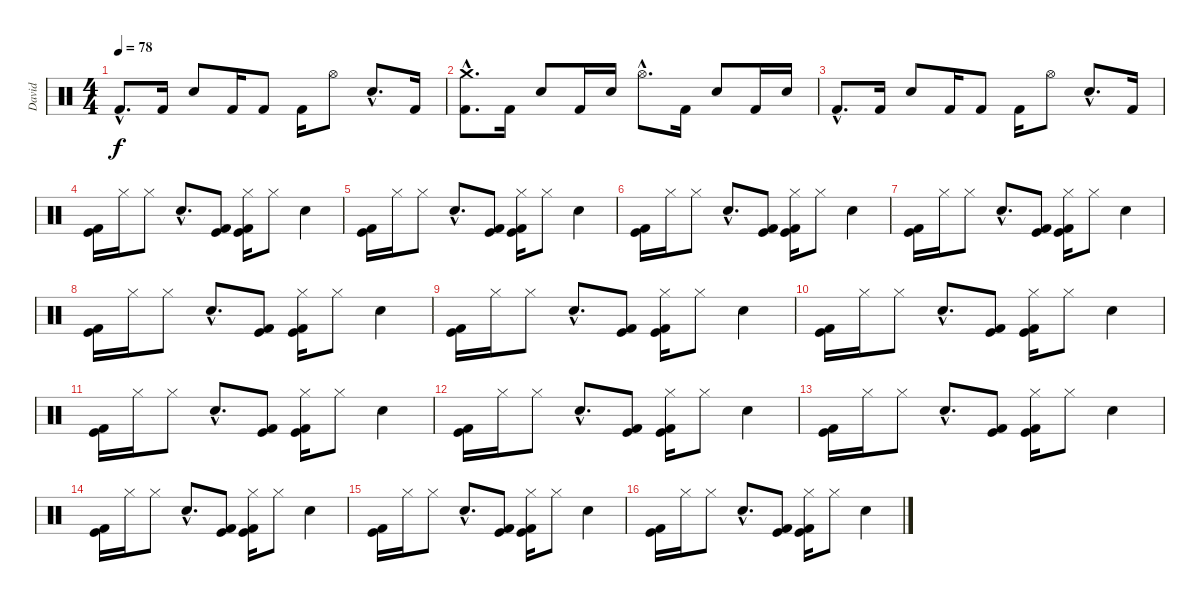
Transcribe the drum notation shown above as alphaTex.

\track ("David" "David") {instrument percussion}
\staff {score}
\articulation defaults
\ts (4 4)
\tempo 78
\clef neutral
\ks c "Kick (hit) 2"{hac}.8{d dy f} "Kick (hit) 2".16 "Snare (hit) 2".8 "Kick (hit) 2".16 "Kick (hit) 2".8 "Kick (hit) 2".16 "Hi-Hat (open)".8 "Snare (hit) 2"{hac}.8{d} "Kick (hit) 2".16
|
("Crash medium (hit)"{hac} "Kick (hit) 2"{hac}).8{d} "Kick (hit) 2".16 "Snare (hit) 2".8 "Kick (hit) 2".16 "Snare (hit) 2".16 "Hi-Hat (open)"{hac}.8{d} "Kick (hit) 2".16 "Snare (hit) 2".8 "Kick (hit) 2".16 "Snare (hit) 2".16 |
"Kick (hit) 2"{hac}.8{d} "Kick (hit) 2".16 "Snare (hit) 2".8 "Kick (hit) 2".16 "Kick (hit) 2".8 "Kick (hit) 2".16 "Hi-Hat (open)".8 "Snare (hit) 2"{hac}.8{d} "Kick (hit) 2".16 |
("Kick (hit) 2" "Kick (hit)").16 "Hi-Hat (closed)".16 "Hi-Hat (closed)".8 "Electric Snare (hit)"{hac}.8{d} ("Kick (hit) 2" "Kick (hit)").8 ("Hi-Hat (closed)" "Kick (hit) 2" "Kick (hit)").16 "Hi-Hat (closed)".8 "Electric Snare (hit)".4 |
("Kick (hit) 2" "Kick (hit)").16 "Hi-Hat (closed)".16 "Hi-Hat (closed)".8 "Electric Snare (hit)"{hac}.8{d} ("Kick (hit) 2" "Kick (hit)").8 ("Hi-Hat (closed)" "Kick (hit) 2" "Kick (hit)").16 "Hi-Hat (closed)".8 "Electric Snare (hit)".4 |
("Kick (hit) 2" "Kick (hit)").16 "Hi-Hat (closed)".16 "Hi-Hat (closed)".8 "Electric Snare (hit)"{hac}.8{d} ("Kick (hit) 2" "Kick (hit)").8 ("Hi-Hat (closed)" "Kick (hit) 2" "Kick (hit)").16 "Hi-Hat (closed)".8 "Electric Snare (hit)".4 |
("Kick (hit) 2" "Kick (hit)").16 "Hi-Hat (closed)".16 "Hi-Hat (closed)".8 "Electric Snare (hit)"{hac}.8{d} ("Kick (hit) 2" "Kick (hit)").8 ("Hi-Hat (closed)" "Kick (hit) 2" "Kick (hit)").16 "Hi-Hat (closed)".8 "Electric Snare (hit)".4 |
("Kick (hit) 2" "Kick (hit)").16 "Hi-Hat (closed)".16 "Hi-Hat (closed)".8 "Electric Snare (hit)"{hac}.8{d} ("Kick (hit) 2" "Kick (hit)").8 ("Hi-Hat (closed)" "Kick (hit) 2" "Kick (hit)").16 "Hi-Hat (closed)".8 "Electric Snare (hit)".4 |
("Kick (hit) 2" "Kick (hit)").16 "Hi-Hat (closed)".16 "Hi-Hat (closed)".8 "Electric Snare (hit)"{hac}.8{d} ("Kick (hit) 2" "Kick (hit)").8 ("Hi-Hat (closed)" "Kick (hit) 2" "Kick (hit)").16 "Hi-Hat (closed)".8 "Electric Snare (hit)".4 |
("Kick (hit) 2" "Kick (hit)").16 "Hi-Hat (closed)".16 "Hi-Hat (closed)".8 "Electric Snare (hit)"{hac}.8{d} ("Kick (hit) 2" "Kick (hit)").8 ("Hi-Hat (closed)" "Kick (hit) 2" "Kick (hit)").16 "Hi-Hat (closed)".8 "Electric Snare (hit)".4 |
("Kick (hit) 2" "Kick (hit)").16 "Hi-Hat (closed)".16 "Hi-Hat (closed)".8 "Electric Snare (hit)"{hac}.8{d} ("Kick (hit) 2" "Kick (hit)").8 ("Hi-Hat (closed)" "Kick (hit) 2" "Kick (hit)").16 "Hi-Hat (closed)".8 "Electric Snare (hit)".4 |
("Kick (hit) 2" "Kick (hit)").16 "Hi-Hat (closed)".16 "Hi-Hat (closed)".8 "Electric Snare (hit)"{hac}.8{d} ("Kick (hit) 2" "Kick (hit)").8 ("Hi-Hat (closed)" "Kick (hit) 2" "Kick (hit)").16 "Hi-Hat (closed)".8 "Electric Snare (hit)".4 |
("Kick (hit) 2" "Kick (hit)").16 "Hi-Hat (closed)".16 "Hi-Hat (closed)".8 "Electric Snare (hit)"{hac}.8{d} ("Kick (hit) 2" "Kick (hit)").8 ("Hi-Hat (closed)" "Kick (hit) 2" "Kick (hit)").16 "Hi-Hat (closed)".8 "Electric Snare (hit)".4 |
("Kick (hit) 2" "Kick (hit)").16 "Hi-Hat (closed)".16 "Hi-Hat (closed)".8 "Electric Snare (hit)"{hac}.8{d} ("Kick (hit) 2" "Kick (hit)").8 ("Hi-Hat (closed)" "Kick (hit) 2" "Kick (hit)").16 "Hi-Hat (closed)".8 "Electric Snare (hit)".4 |
("Kick (hit) 2" "Kick (hit)").16 "Hi-Hat (closed)".16 "Hi-Hat (closed)".8 "Electric Snare (hit)"{hac}.8{d} ("Kick (hit) 2" "Kick (hit)").8 ("Hi-Hat (closed)" "Kick (hit) 2" "Kick (hit)").16 "Hi-Hat (closed)".8 "Electric Snare (hit)".4 |
("Kick (hit) 2" "Kick (hit)").16 "Hi-Hat (closed)".16 "Hi-Hat (closed)".8 "Electric Snare (hit)"{hac}.8{d} ("Kick (hit) 2" "Kick (hit)").8 ("Hi-Hat (closed)" "Kick (hit) 2" "Kick (hit)").16 "Hi-Hat (closed)".8 "Electric Snare (hit)".4
